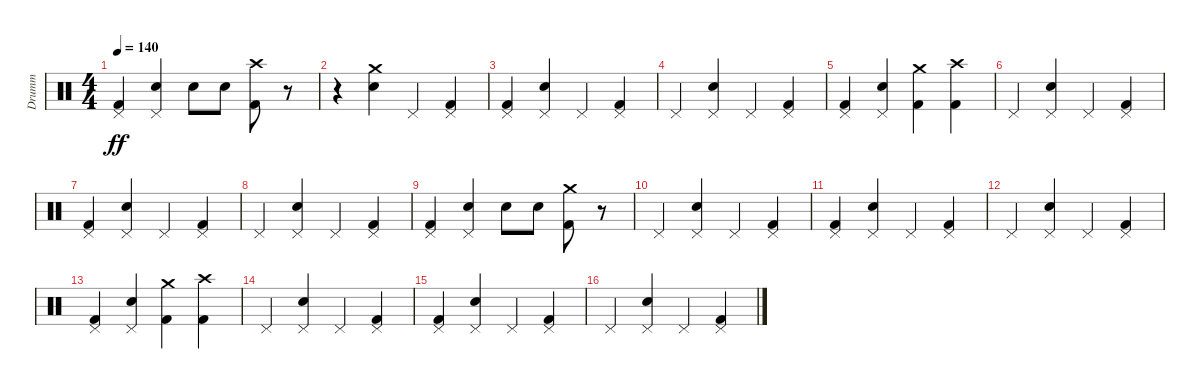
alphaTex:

\track ("Drumm" "Drumm") {instrument percussion}
\staff {score}
\articulation defaults
\ts (4 4)
\tempo 140
\clef neutral
\ks c
("Pedal Hi-Hat (hit)" "Kick (hit) 2").4{dy ff} ("Pedal Hi-Hat (hit)" "Snare (hit) 2").4 "Snare (hit) 2".8 "Snare (hit) 2".8 ("Crash high (hit)" "Kick (hit) 2").8 r.8 |
r.4 ("Crash medium (hit)" "Snare (hit) 2").4 "Pedal Hi-Hat (hit)".4 ("Pedal Hi-Hat (hit)" "Kick (hit) 2").4 |
("Pedal Hi-Hat (hit)" "Kick (hit) 2").4 ("Pedal Hi-Hat (hit)" "Snare (hit) 2").4 "Pedal Hi-Hat (hit)".4 ("Pedal Hi-Hat (hit)" "Kick (hit) 2").4 |
"Pedal Hi-Hat (hit)".4 ("Pedal Hi-Hat (hit)" "Snare (hit) 2").4 "Pedal Hi-Hat (hit)".4 ("Pedal Hi-Hat (hit)" "Kick (hit) 2").4 |
("Pedal Hi-Hat (hit)" "Kick (hit) 2").4 ("Pedal Hi-Hat (hit)" "Snare (hit) 2").4 ("Crash medium (hit)" "Kick (hit) 2").4 ("Crash high (hit)" "Kick (hit) 2").4 |
"Pedal Hi-Hat (hit)".4 ("Pedal Hi-Hat (hit)" "Snare (hit) 2").4 "Pedal Hi-Hat (hit)".4 ("Pedal Hi-Hat (hit)" "Kick (hit) 2").4 |
("Pedal Hi-Hat (hit)" "Kick (hit) 2").4 ("Pedal Hi-Hat (hit)" "Snare (hit) 2").4 "Pedal Hi-Hat (hit)".4 ("Pedal Hi-Hat (hit)" "Kick (hit) 2").4 |
"Pedal Hi-Hat (hit)".4 ("Pedal Hi-Hat (hit)" "Snare (hit) 2").4 "Pedal Hi-Hat (hit)".4 ("Pedal Hi-Hat (hit)" "Kick (hit) 2").4 |
("Pedal Hi-Hat (hit)" "Kick (hit) 2").4 ("Pedal Hi-Hat (hit)" "Snare (hit) 2").4 "Snare (hit) 2".8 "Snare (hit) 2".8 ("Crash medium (hit)" "Kick (hit) 2").8 r.8 |
"Pedal Hi-Hat (hit)".4 ("Pedal Hi-Hat (hit)" "Snare (hit) 2").4 "Pedal Hi-Hat (hit)".4 ("Pedal Hi-Hat (hit)" "Kick (hit) 2").4 |
("Pedal Hi-Hat (hit)" "Kick (hit) 2").4 ("Pedal Hi-Hat (hit)" "Snare (hit) 2").4 "Pedal Hi-Hat (hit)".4 ("Pedal Hi-Hat (hit)" "Kick (hit) 2").4 |
"Pedal Hi-Hat (hit)".4 ("Pedal Hi-Hat (hit)" "Snare (hit) 2").4 "Pedal Hi-Hat (hit)".4 ("Pedal Hi-Hat (hit)" "Kick (hit) 2").4 |
("Pedal Hi-Hat (hit)" "Kick (hit) 2").4 ("Pedal Hi-Hat (hit)" "Snare (hit) 2").4 ("Crash medium (hit)" "Kick (hit) 2").4 ("Crash high (hit)" "Kick (hit) 2").4 |
"Pedal Hi-Hat (hit)".4 ("Pedal Hi-Hat (hit)" "Snare (hit) 2").4 "Pedal Hi-Hat (hit)".4 ("Pedal Hi-Hat (hit)" "Kick (hit) 2").4 |
("Pedal Hi-Hat (hit)" "Kick (hit) 2").4 ("Pedal Hi-Hat (hit)" "Snare (hit) 2").4 "Pedal Hi-Hat (hit)".4 ("Pedal Hi-Hat (hit)" "Kick (hit) 2").4 |
"Pedal Hi-Hat (hit)".4 ("Pedal Hi-Hat (hit)" "Snare (hit) 2").4 "Pedal Hi-Hat (hit)".4 ("Pedal Hi-Hat (hit)" "Kick (hit) 2").4
